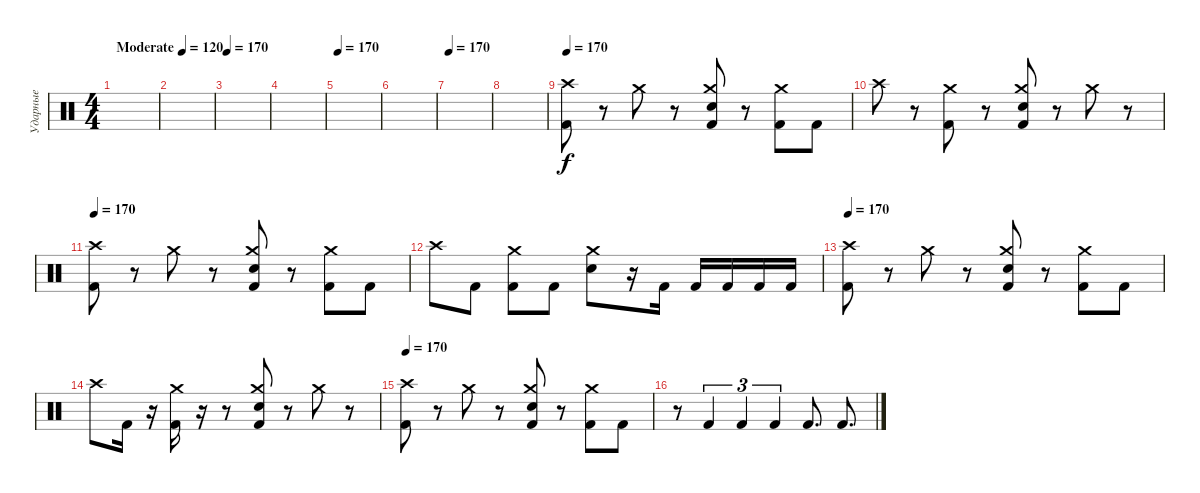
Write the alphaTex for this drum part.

\track ("Ударные" "Ударные") {instrument percussion}
\staff {score}
\articulation defaults
\ts (4 4)
\tempo (120 "Moderate")
\tempo 170
\tempo (120 "Moderate")
\clef neutral
\ks c
|
|
\tempo 170
|
|
\tempo 170
|
|
\tempo 170
|
|
\tempo 170
("Crash high (hit)" "Kick (hit) 2").8 r.8 "Crash medium (hit)".8 r.8 ("Crash medium (hit)" "Electric Snare (hit)" "Kick (hit) 2").8{bd 60} r.8 ("Crash medium (hit)" "Kick (hit) 2").8 "Kick (hit) 2".8 |
"Crash high (hit)".8 r.8 ("Crash medium (hit)" "Kick (hit) 2").8 r.8 ("Crash medium (hit)" "Electric Snare (hit)" "Kick (hit) 2").8{bd 60} r.8 "Crash medium (hit)".8 r.8 |
\tempo 170
("Crash high (hit)" "Kick (hit) 2").8 r.8 "Crash medium (hit)".8 r.8 ("Crash medium (hit)" "Electric Snare (hit)" "Kick (hit) 2").8{bd 60} r.8 ("Crash medium (hit)" "Kick (hit) 2").8 "Kick (hit) 2".8 |
"Crash high (hit)".8 "Kick (hit) 2".8 ("Crash medium (hit)" "Kick (hit) 2").8 "Kick (hit) 2".8 ("Crash medium (hit)" "Electric Snare (hit)").8 r.16 "Kick (hit) 2".16 "Kick (hit) 2".16 "Kick (hit) 2".16 "Kick (hit) 2".16 "Kick (hit) 2".16 |
\tempo 170
("Crash high (hit)" "Kick (hit) 2").8 r.8 "Crash medium (hit)".8 r.8 ("Crash medium (hit)" "Electric Snare (hit)" "Kick (hit) 2").8{bd 60} r.8 ("Crash medium (hit)" "Kick (hit) 2").8 "Kick (hit) 2".8 |
"Crash high (hit)".8 "Kick (hit) 2".16 r.16 ("Crash medium (hit)" "Kick (hit) 2").16 r.16 r.8 ("Crash medium (hit)" "Electric Snare (hit)" "Kick (hit) 2").8{bd 60} r.8 "Crash medium (hit)".8 r.8 |
\tempo 170
("Crash high (hit)" "Kick (hit) 2").8 r.8 "Crash medium (hit)".8 r.8 ("Crash medium (hit)" "Electric Snare (hit)" "Kick (hit) 2").8{bd 60} r.8 ("Crash medium (hit)" "Kick (hit) 2").8 "Kick (hit) 2".8 |
r.8 "Kick (hit) 2".4{tu (3 2)} "Kick (hit) 2".4{tu (3 2)} "Kick (hit) 2".4{tu (3 2)} "Kick (hit) 2".8{d} "Kick (hit) 2".8{d}
